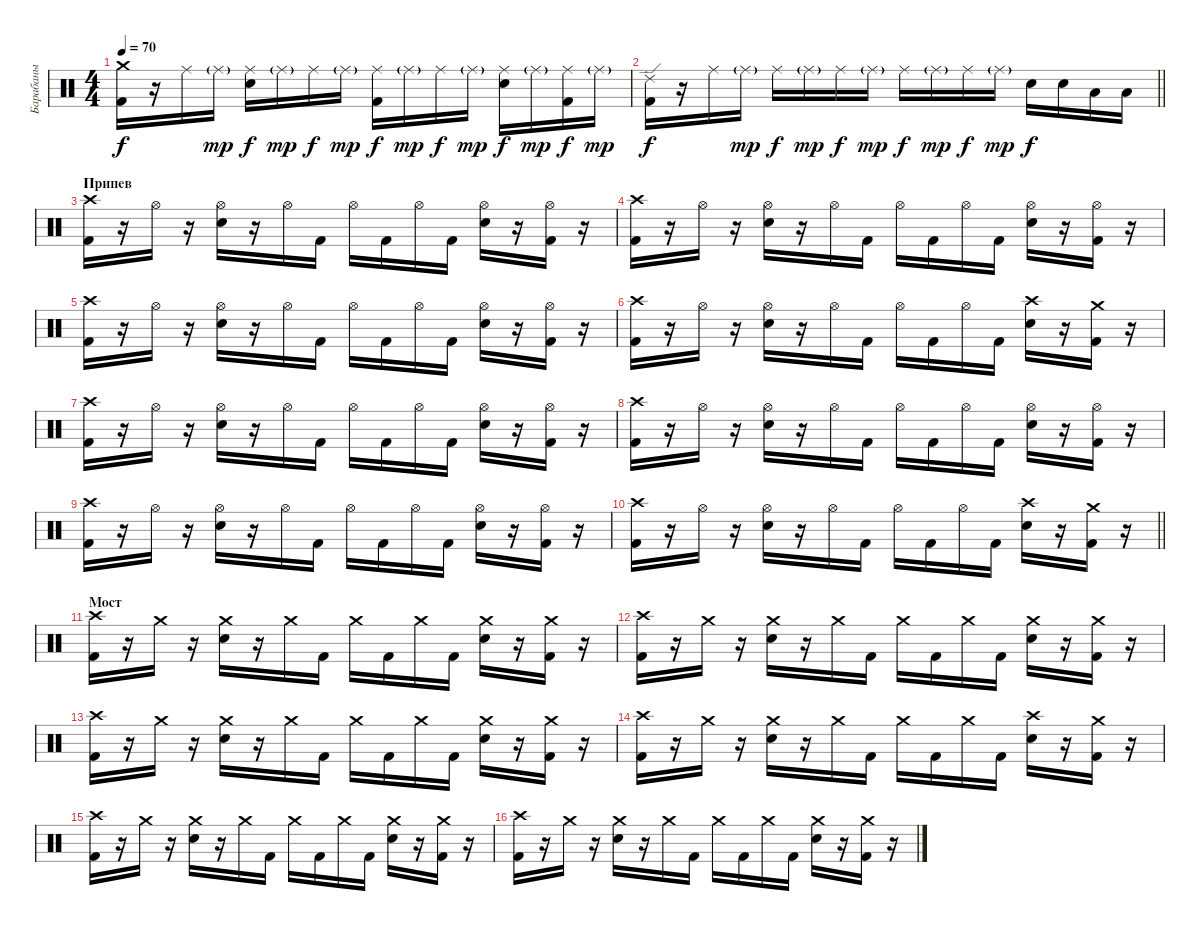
\track ("Барабаны" "Барабаны") {instrument percussion}
\staff {score}
\articulation defaults
\ts (4 4)
\tempo 70
\clef neutral
\ks c
("Crash medium (hit)" "Kick (hit) 2").16{dy f} r.16 "Ride (middle)".16 "Ride (middle)"{g}.16{dy mp} ("Ride (middle)" "Snare (hit) 2").16{dy f} "Ride (middle)"{g}.16{dy mp} "Ride (middle)".16{dy f} "Ride (middle)"{g}.16{dy mp} ("Ride (middle)" "Kick (hit) 2").16{dy f} "Ride (middle)"{g}.16{dy mp} "Ride (middle)".16{dy f} "Ride (middle)"{g}.16{dy mp} ("Ride (middle)" "Snare (hit) 2").16{dy f} "Ride (middle)"{g}.16{dy mp} ("Ride (middle)" "Kick (hit) 2").16{dy f} "Ride (middle)"{g}.16{dy mp} |
\barLineRight lightlight
("Ride (edge) 2" "Kick (hit) 2").16{dy f} r.16 "Ride (middle)".16 "Ride (middle)"{g}.16{dy mp} "Ride (middle)".16{dy f} "Ride (middle)"{g}.16{dy mp} "Ride (middle)".16{dy f} "Ride (middle)"{g}.16{dy mp} "Ride (middle)".16{dy f} "Ride (middle)"{g}.16{dy mp} "Ride (middle)".16{dy f} "Ride (middle)"{g}.16{dy mp} "Snare (hit) 2".16{dy f} "Snare (hit) 2".16 "Low Tom (hit)".16 "Low Tom (hit)".16 |
\section ("" "Припев")
("Crash high (hit)" "Kick (hit) 2").16 r.16 "Hi-Hat (open)".16 r.16 ("Hi-Hat (open)" "Snare (hit) 2").16 r.16 "Hi-Hat (open)".16 "Kick (hit) 2".16 "Hi-Hat (open)".16 "Kick (hit) 2".16 "Hi-Hat (open)".16 "Kick (hit) 2".16 ("Hi-Hat (open)" "Snare (hit) 2").16 r.16 ("Hi-Hat (open)" "Kick (hit) 2").16 r.16 |
("Crash high (hit)" "Kick (hit) 2").16 r.16 "Hi-Hat (open)".16 r.16 ("Hi-Hat (open)" "Snare (hit) 2").16 r.16 "Hi-Hat (open)".16 "Kick (hit) 2".16 "Hi-Hat (open)".16 "Kick (hit) 2".16 "Hi-Hat (open)".16 "Kick (hit) 2".16 ("Hi-Hat (open)" "Snare (hit) 2").16 r.16 ("Hi-Hat (open)" "Kick (hit) 2").16 r.16 |
("Crash high (hit)" "Kick (hit) 2").16 r.16 "Hi-Hat (open)".16 r.16 ("Hi-Hat (open)" "Snare (hit) 2").16 r.16 "Hi-Hat (open)".16 "Kick (hit) 2".16 "Hi-Hat (open)".16 "Kick (hit) 2".16 "Hi-Hat (open)".16 "Kick (hit) 2".16 ("Hi-Hat (open)" "Snare (hit) 2").16 r.16 ("Hi-Hat (open)" "Kick (hit) 2").16 r.16 |
("Crash high (hit)" "Kick (hit) 2").16 r.16 "Hi-Hat (open)".16 r.16 ("Hi-Hat (open)" "Snare (hit) 2").16 r.16 "Hi-Hat (open)".16 "Kick (hit) 2".16 "Hi-Hat (open)".16 "Kick (hit) 2".16 "Hi-Hat (open)".16 "Kick (hit) 2".16 ("Crash high (hit)" "Snare (hit) 2").16 r.16 ("Crash medium (hit)" "Kick (hit) 2").16 r.16 |
("Crash high (hit)" "Kick (hit) 2").16 r.16 "Hi-Hat (open)".16 r.16 ("Hi-Hat (open)" "Snare (hit) 2").16 r.16 "Hi-Hat (open)".16 "Kick (hit) 2".16 "Hi-Hat (open)".16 "Kick (hit) 2".16 "Hi-Hat (open)".16 "Kick (hit) 2".16 ("Hi-Hat (open)" "Snare (hit) 2").16 r.16 ("Hi-Hat (open)" "Kick (hit) 2").16 r.16 |
("Crash high (hit)" "Kick (hit) 2").16 r.16 "Hi-Hat (open)".16 r.16 ("Hi-Hat (open)" "Snare (hit) 2").16 r.16 "Hi-Hat (open)".16 "Kick (hit) 2".16 "Hi-Hat (open)".16 "Kick (hit) 2".16 "Hi-Hat (open)".16 "Kick (hit) 2".16 ("Hi-Hat (open)" "Snare (hit) 2").16 r.16 ("Hi-Hat (open)" "Kick (hit) 2").16 r.16 |
("Crash high (hit)" "Kick (hit) 2").16 r.16 "Hi-Hat (open)".16 r.16 ("Hi-Hat (open)" "Snare (hit) 2").16 r.16 "Hi-Hat (open)".16 "Kick (hit) 2".16 "Hi-Hat (open)".16 "Kick (hit) 2".16 "Hi-Hat (open)".16 "Kick (hit) 2".16 ("Hi-Hat (open)" "Snare (hit) 2").16 r.16 ("Hi-Hat (open)" "Kick (hit) 2").16 r.16 |
\barLineRight lightlight
("Crash high (hit)" "Kick (hit) 2").16 r.16 "Hi-Hat (open)".16 r.16 ("Hi-Hat (open)" "Snare (hit) 2").16 r.16 "Hi-Hat (open)".16 "Kick (hit) 2".16 "Hi-Hat (open)".16 "Kick (hit) 2".16 "Hi-Hat (open)".16 "Kick (hit) 2".16 ("Crash high (hit)" "Snare (hit) 2").16 r.16 ("Crash medium (hit)" "Kick (hit) 2").16 r.16 |
\section ("" "Мост")
("Crash high (hit)" "Kick (hit) 2").16 r.16 "Crash medium (hit)".16 r.16 ("Crash medium (hit)" "Snare (hit) 2").16 r.16 "Crash medium (hit)".16 "Kick (hit) 2".16 "Crash medium (hit)".16 "Kick (hit) 2".16 "Crash medium (hit)".16 "Kick (hit) 2".16 ("Crash medium (hit)" "Snare (hit) 2").16 r.16 ("Crash medium (hit)" "Kick (hit) 2").16 r.16 |
("Crash high (hit)" "Kick (hit) 2").16 r.16 "Crash medium (hit)".16 r.16 ("Crash medium (hit)" "Snare (hit) 2").16 r.16 "Crash medium (hit)".16 "Kick (hit) 2".16 "Crash medium (hit)".16 "Kick (hit) 2".16 "Crash medium (hit)".16 "Kick (hit) 2".16 ("Crash medium (hit)" "Snare (hit) 2").16 r.16 ("Crash medium (hit)" "Kick (hit) 2").16 r.16 |
("Crash high (hit)" "Kick (hit) 2").16 r.16 "Crash medium (hit)".16 r.16 ("Crash medium (hit)" "Snare (hit) 2").16 r.16 "Crash medium (hit)".16 "Kick (hit) 2".16 "Crash medium (hit)".16 "Kick (hit) 2".16 "Crash medium (hit)".16 "Kick (hit) 2".16 ("Crash medium (hit)" "Snare (hit) 2").16 r.16 ("Crash medium (hit)" "Kick (hit) 2").16 r.16 |
("Crash high (hit)" "Kick (hit) 2").16 r.16 "Crash medium (hit)".16 r.16 ("Crash medium (hit)" "Snare (hit) 2").16 r.16 "Crash medium (hit)".16 "Kick (hit) 2".16 "Crash medium (hit)".16 "Kick (hit) 2".16 "Crash medium (hit)".16 "Kick (hit) 2".16 ("Crash high (hit)" "Snare (hit) 2").16 r.16 ("Crash medium (hit)" "Kick (hit) 2").16 r.16 |
("Crash high (hit)" "Kick (hit) 2").16 r.16 "Crash medium (hit)".16 r.16 ("Crash medium (hit)" "Snare (hit) 2").16 r.16 "Crash medium (hit)".16 "Kick (hit) 2".16 "Crash medium (hit)".16 "Kick (hit) 2".16 "Crash medium (hit)".16 "Kick (hit) 2".16 ("Crash medium (hit)" "Snare (hit) 2").16 r.16 ("Crash medium (hit)" "Kick (hit) 2").16 r.16 |
("Crash high (hit)" "Kick (hit) 2").16 r.16 "Crash medium (hit)".16 r.16 ("Crash medium (hit)" "Snare (hit) 2").16 r.16 "Crash medium (hit)".16 "Kick (hit) 2".16 "Crash medium (hit)".16 "Kick (hit) 2".16 "Crash medium (hit)".16 "Kick (hit) 2".16 ("Crash medium (hit)" "Snare (hit) 2").16 r.16 ("Crash medium (hit)" "Kick (hit) 2").16 r.16
